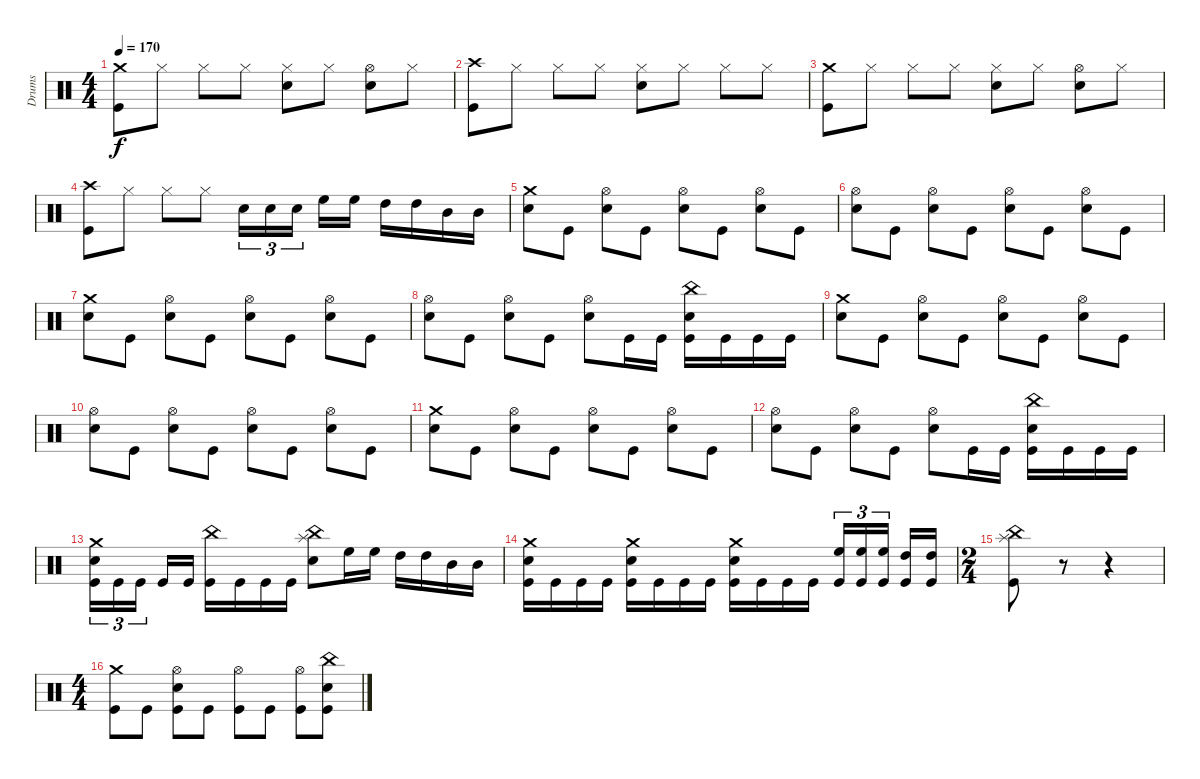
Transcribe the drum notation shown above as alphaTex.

\track ("Drums" "Drums") {instrument percussion}
\staff {score}
\articulation defaults
\ts (4 4)
\tempo 170
\clef neutral
\ks c
("Crash medium (hit)" "Kick (hit)").8{dy f} "Hi-Hat (closed)".8 "Hi-Hat (closed)".8 "Hi-Hat (closed)".8 ("Hi-Hat (closed)" "Electric Snare (hit)").8 "Hi-Hat (closed)".8 ("Hi-Hat (open)" "Electric Snare (hit)").8 "Hi-Hat (closed)".8 |
("Crash high (hit)" "Kick (hit)").8 "Hi-Hat (closed)".8 "Hi-Hat (closed)".8 "Hi-Hat (closed)".8 ("Hi-Hat (closed)" "Electric Snare (hit)").8 "Hi-Hat (closed)".8 "Hi-Hat (closed)".8 "Hi-Hat (closed)".8 |
("Crash medium (hit)" "Kick (hit)").8 "Hi-Hat (closed)".8 "Hi-Hat (closed)".8 "Hi-Hat (closed)".8 ("Hi-Hat (closed)" "Electric Snare (hit)").8 "Hi-Hat (closed)".8 ("Hi-Hat (open)" "Electric Snare (hit)").8 "Hi-Hat (closed)".8 |
("Crash high (hit)" "Kick (hit)").8 "Hi-Hat (closed)".8 "Hi-Hat (closed)".8 "Hi-Hat (closed)".8 "Electric Snare (hit)".16{tu (3 2)} "Electric Snare (hit)".16{tu (3 2)} "Electric Snare (hit)".16{tu (3 2)} "High Floor Tom (hit)".16 "High Floor Tom (hit)".16 "High Tom (hit)".16 "High Tom (hit)".16 "Mid Tom (hit)".16 "Mid Tom (hit)".16 |
("Crash medium (hit)" "Electric Snare (hit)").8 "Kick (hit)".8 ("Hi-Hat (open)" "Electric Snare (hit)").8 "Kick (hit)".8 ("Hi-Hat (open)" "Electric Snare (hit)").8 "Kick (hit)".8 ("Hi-Hat (open)" "Electric Snare (hit)").8 "Kick (hit)".8 |
("Hi-Hat (open)" "Electric Snare (hit)").8 "Kick (hit)".8 ("Hi-Hat (open)" "Electric Snare (hit)").8 "Kick (hit)".8 ("Hi-Hat (open)" "Electric Snare (hit)").8 "Kick (hit)".8 ("Hi-Hat (open)" "Electric Snare (hit)").8 "Kick (hit)".8 |
("Crash medium (hit)" "Electric Snare (hit)").8 "Kick (hit)".8 ("Hi-Hat (open)" "Electric Snare (hit)").8 "Kick (hit)".8 ("Hi-Hat (open)" "Electric Snare (hit)").8 "Kick (hit)".8 ("Hi-Hat (open)" "Electric Snare (hit)").8 "Kick (hit)".8 |
("Hi-Hat (open)" "Electric Snare (hit)").8 "Kick (hit)".8 ("Hi-Hat (open)" "Electric Snare (hit)").8 "Kick (hit)".8 ("Hi-Hat (open)" "Electric Snare (hit)").8 "Kick (hit)".16 "Kick (hit)".16 ("China (hit)" "Electric Snare (hit)" "Kick (hit)").16 "Kick (hit)".16 "Kick (hit)".16 "Kick (hit)".16 |
("Crash medium (hit)" "Electric Snare (hit)").8 "Kick (hit)".8 ("Hi-Hat (open)" "Electric Snare (hit)").8 "Kick (hit)".8 ("Hi-Hat (open)" "Electric Snare (hit)").8 "Kick (hit)".8 ("Hi-Hat (open)" "Electric Snare (hit)").8 "Kick (hit)".8 |
("Hi-Hat (open)" "Electric Snare (hit)").8 "Kick (hit)".8 ("Hi-Hat (open)" "Electric Snare (hit)").8 "Kick (hit)".8 ("Hi-Hat (open)" "Electric Snare (hit)").8 "Kick (hit)".8 ("Hi-Hat (open)" "Electric Snare (hit)").8 "Kick (hit)".8 |
("Crash medium (hit)" "Electric Snare (hit)").8 "Kick (hit)".8 ("Hi-Hat (open)" "Electric Snare (hit)").8 "Kick (hit)".8 ("Hi-Hat (open)" "Electric Snare (hit)").8 "Kick (hit)".8 ("Hi-Hat (open)" "Electric Snare (hit)").8 "Kick (hit)".8 |
("Hi-Hat (open)" "Electric Snare (hit)").8 "Kick (hit)".8 ("Hi-Hat (open)" "Electric Snare (hit)").8 "Kick (hit)".8 ("Hi-Hat (open)" "Electric Snare (hit)").8 "Kick (hit)".16 "Kick (hit)".16 ("China (hit)" "Electric Snare (hit)" "Kick (hit)").16 "Kick (hit)".16 "Kick (hit)".16 "Kick (hit)".16 |
("Crash medium (hit)" "Electric Snare (hit)" "Kick (hit)").16{tu (3 2)} "Kick (hit)".16{tu (3 2)} "Kick (hit)".16{tu (3 2)} "Kick (hit)".16 "Kick (hit)".16 ("China (hit)" "Kick (hit)").16 "Kick (hit)".16 "Kick (hit)".16 "Kick (hit)".16 ("Splash (hit)" "China (hit)" "Electric Snare (hit)").8 "High Floor Tom (hit)".16 "High Floor Tom (hit)".16 "High Tom (hit)".16 "High Tom (hit)".16 "Mid Tom (hit)".16 "Mid Tom (hit)".16 |
("Crash medium (hit)" "Electric Snare (hit)" "Kick (hit)").16 "Kick (hit)".16 "Kick (hit)".16 "Kick (hit)".16 ("Crash medium (hit)" "Electric Snare (hit)" "Kick (hit)").16 "Kick (hit)".16 "Kick (hit)".16 "Kick (hit)".16 ("Crash medium (hit)" "Electric Snare (hit)" "Kick (hit)").16 "Kick (hit)".16 "Kick (hit)".16 "Kick (hit)".16 ("High Floor Tom (hit)" "Kick (hit)").16{tu (3 2)} ("High Floor Tom (hit)" "Kick (hit)").16{tu (3 2)} ("High Floor Tom (hit)" "Kick (hit)").16{tu (3 2)} ("High Tom (hit)" "Kick (hit)").16 ("High Tom (hit)" "Kick (hit)").16 |
\ts (2 4)
("Splash (hit)" "China (hit)" "Kick (hit)").8 r.8 r.4 |
\ts (4 4)
("Crash medium (hit)" "Kick (hit)").8 "Kick (hit)".8 ("Hi-Hat (open)" "Electric Snare (hit)" "Kick (hit)").8 "Kick (hit)".8 ("Hi-Hat (open)" "Kick (hit)").8 "Kick (hit)".8 ("Hi-Hat (open)" "Kick (hit)").8 ("China (hit)" "Electric Snare (hit)" "Kick (hit)").8
